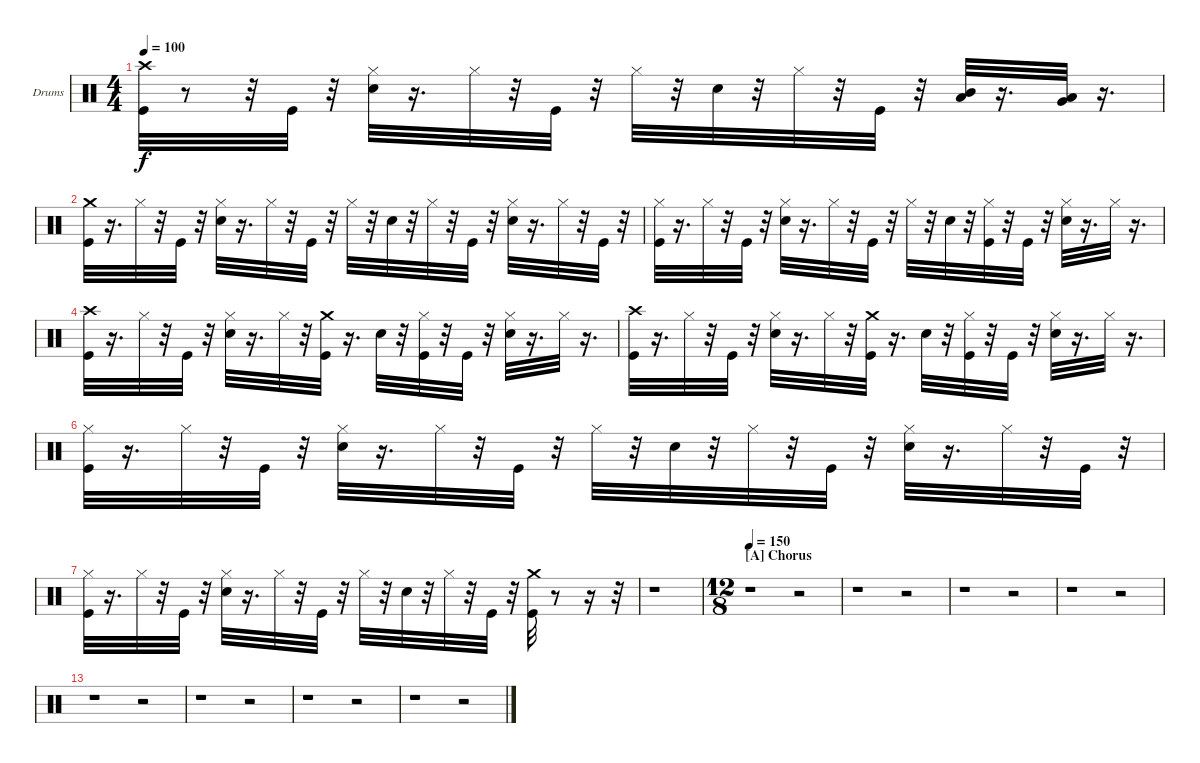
\bracketExtendMode nobrackets
\firstSystemTrackNameOrientation horizontal
\otherSystemsTrackNameOrientation horizontal
\defaultBarNumberDisplay FirstOfSystem
\track ("Drumkit" "Drums") {instrument percussion}
\staff {score}
\articulation defaults
\ts (4 4)
\tempo 100
\clef neutral
\ks c
("Kick (hit)" "Crash high (hit)").32{dy f} r.8 r.32 "Kick (hit)".32 r.32 ("Hi-Hat (closed)" "Snare (hit) 2").32 r.16{d} "Hi-Hat (closed)".32 r.32 "Kick (hit)".32 r.32 "Hi-Hat (closed)".32 r.32 "Snare (hit) 2".32 r.32 "Hi-Hat (closed)".32 r.32 "Kick (hit)".32 r.32 ("Mid Tom (hit)" "Low Tom (hit)").32 r.16{d} ("Low Tom (hit)" "Very Low Tom (hit)").32 r.16{d} |
("Kick (hit)" "Crash medium (hit)").32 r.16{d} "Hi-Hat (closed)".32 r.32 "Kick (hit)".32 r.32 ("Snare (hit) 2" "Hi-Hat (closed)").32 r.16{d} "Hi-Hat (closed)".32 r.32 "Kick (hit)".32 r.32 "Hi-Hat (closed)".32 r.32 "Snare (hit) 2".32 r.32 "Hi-Hat (closed)".32 r.32 "Kick (hit)".32 r.32 ("Snare (hit) 2" "Hi-Hat (closed)").32 r.16{d} "Hi-Hat (closed)".32 r.32 "Kick (hit)".32 r.32 |
\scale
0.40092 ("Hi-Hat (closed)" "Kick (hit)").32 r.16{d} "Hi-Hat (closed)".32 r.32 "Kick (hit)".32 r.32 ("Hi-Hat (closed)" "Snare (hit) 2").32 r.16{d} "Hi-Hat (closed)".32 r.32 "Kick (hit)".32 r.32 "Hi-Hat (closed)".32 r.32 "Snare (hit) 2".32 r.32 ("Hi-Hat (closed)" "Kick (hit)").32 r.32 "Kick (hit)".32 r.32 ("Hi-Hat (closed)" "Snare (hit) 2").32 r.16{d} "Hi-Hat (closed)".32 r.16{d} |
\scale
0.431934 ("Crash high (hit)" "Kick (hit)").32 r.16{d} "Hi-Hat (closed)".32 r.32 "Kick (hit)".32 r.32 ("Hi-Hat (closed)" "Snare (hit) 2").32 r.16{d} "Hi-Hat (closed)".32 r.32 ("Crash medium (hit)" "Kick (hit)").32 r.16{d} "Snare (hit) 2".32 r.32 ("Hi-Hat (closed)" "Kick (hit)").32 r.32 "Kick (hit)".32 r.32 ("Hi-Hat (closed)" "Snare (hit) 2").32 r.16{d} "Hi-Hat (closed)".32 r.16{d} |
\scale
0.167513 ("Crash high (hit)" "Kick (hit)").32 r.16{d} "Hi-Hat (closed)".32 r.32 "Kick (hit)".32 r.32 ("Hi-Hat (closed)" "Snare (hit) 2").32 r.16{d} "Hi-Hat (closed)".32 r.32 ("Crash medium (hit)" "Kick (hit)").32 r.16{d} "Snare (hit) 2".32 r.32 ("Hi-Hat (closed)" "Kick (hit)").32 r.32 "Kick (hit)".32 r.32 ("Hi-Hat (closed)" "Snare (hit) 2").32 r.16{d} "Hi-Hat (closed)".32 r.16{d} |
\scale
0.488189 ("Hi-Hat (closed)" "Kick (hit)").32 r.16{d} "Hi-Hat (closed)".32 r.32 "Kick (hit)".32 r.32 ("Hi-Hat (closed)" "Snare (hit) 2").32 r.16{d} "Hi-Hat (closed)".32 r.32 "Kick (hit)".32 r.32 "Hi-Hat (closed)".32 r.32 "Snare (hit) 2".32 r.32 "Hi-Hat (closed)".32 r.32 "Kick (hit)".32 r.32 ("Hi-Hat (closed)" "Snare (hit) 2").32 r.16{d} "Hi-Hat (closed)".32 r.32 "Kick (hit)".32 r.32 |
\scale
0.389998 ("Hi-Hat (closed)" "Kick (hit)").32 r.16{d} "Hi-Hat (closed)".32 r.32 "Kick (hit)".32 r.32 ("Hi-Hat (closed)" "Snare (hit) 2").32 r.16{d} "Hi-Hat (closed)".32 r.32 "Kick (hit)".32 r.32 "Hi-Hat (closed)".32 r.32 "Snare (hit) 2".32 r.32 "Hi-Hat (closed)".32 r.32 "Kick (hit)".32 r.32 ("Crash medium (hit)" "Kick (hit)").32 r.8 r.16 r.32 |
\scale
0.116798 r.1 |
\ts (12 8)
\beaming (8 3 3 3 3)
\section ("A" "Chorus")
\tempo 150
r.1 r.2 |
r.1 r.2 |
r.1 r.2 |
r.1 r.2 |
r.1 r.2 |
r.1 r.2 |
r.1 r.2 |
r.1 r.2
